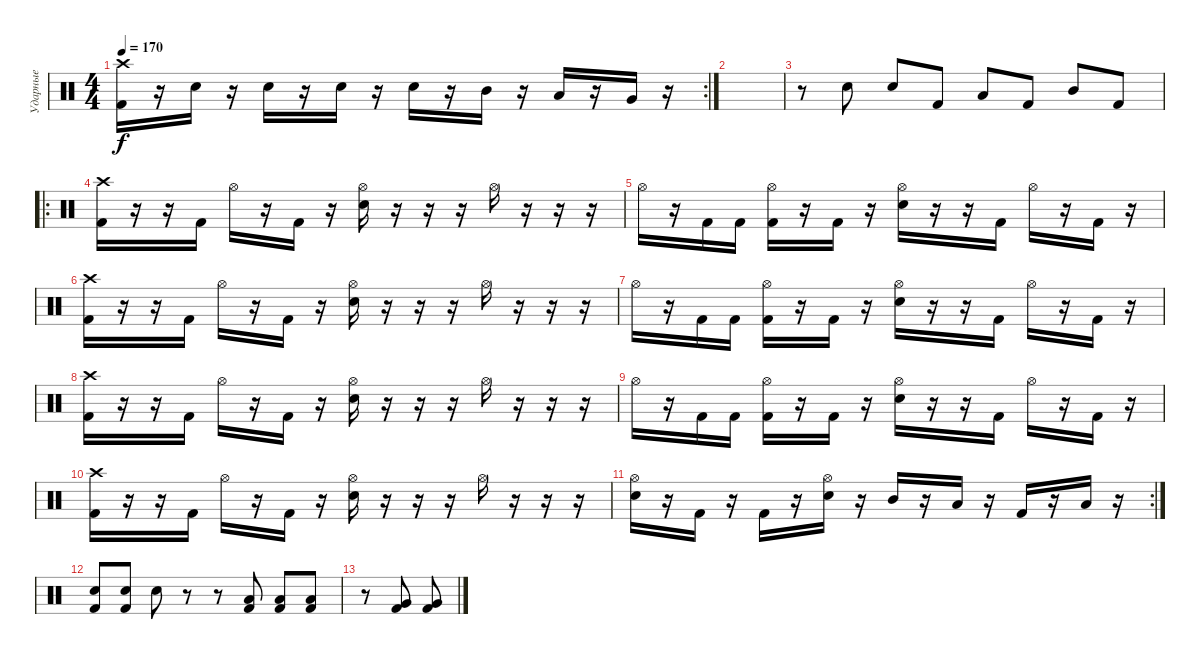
\track ("Ударные" "Ударные") {instrument percussion}
\staff {score}
\articulation defaults
\rc 2
\ts (4 4)
\tempo 170
\clef neutral
\ks c
("Crash high (hit)" "Kick (hit) 2").16{dy f} r.16 "Electric Snare (hit)".16 r.16 "Electric Snare (hit)".16 r.16 "Electric Snare (hit)".16 r.16 "Electric Snare (hit)".16 r.16 "Mid Tom (hit)".16 r.16 "Low Tom (hit)".16 r.16 "Very Low Tom (hit)".16 r.16 |
|
r.8 "Electric Snare (hit)".8 "Electric Snare (hit)".8 "Kick (hit) 2".8 "Low Tom (hit)".8 "Kick (hit) 2".8 "Mid Tom (hit)".8 "Kick (hit) 2".8 |
\ro
("Crash high (hit)" "Kick (hit) 2").16 r.16 r.16 "Kick (hit) 2".16 "Hi-Hat (open)".16 r.16 "Kick (hit) 2".16 r.16 ("Hi-Hat (open)" "Electric Snare (hit)").16 r.16 r.16 r.16 "Hi-Hat (open)".16 r.16 r.16 r.16 |
"Hi-Hat (open)".16 r.16 "Kick (hit) 2".16 "Kick (hit) 2".16 ("Hi-Hat (open)" "Kick (hit) 2").16 r.16 "Kick (hit) 2".16 r.16 ("Hi-Hat (open)" "Electric Snare (hit)").16 r.16 r.16 "Kick (hit) 2".16 "Hi-Hat (open)".16 r.16 "Kick (hit) 2".16 r.16 |
("Crash high (hit)" "Kick (hit) 2").16 r.16 r.16 "Kick (hit) 2".16 "Hi-Hat (open)".16 r.16 "Kick (hit) 2".16 r.16 ("Hi-Hat (open)" "Electric Snare (hit)").16 r.16 r.16 r.16 "Hi-Hat (open)".16 r.16 r.16 r.16 |
"Hi-Hat (open)".16 r.16 "Kick (hit) 2".16 "Kick (hit) 2".16 ("Hi-Hat (open)" "Kick (hit) 2").16 r.16 "Kick (hit) 2".16 r.16 ("Hi-Hat (open)" "Electric Snare (hit)").16 r.16 r.16 "Kick (hit) 2".16 "Hi-Hat (open)".16 r.16 "Kick (hit) 2".16 r.16 |
("Crash high (hit)" "Kick (hit) 2").16 r.16 r.16 "Kick (hit) 2".16 "Hi-Hat (open)".16 r.16 "Kick (hit) 2".16 r.16 ("Hi-Hat (open)" "Electric Snare (hit)").16 r.16 r.16 r.16 "Hi-Hat (open)".16 r.16 r.16 r.16 |
"Hi-Hat (open)".16 r.16 "Kick (hit) 2".16 "Kick (hit) 2".16 ("Hi-Hat (open)" "Kick (hit) 2").16 r.16 "Kick (hit) 2".16 r.16 ("Hi-Hat (open)" "Electric Snare (hit)").16 r.16 r.16 "Kick (hit) 2".16 "Hi-Hat (open)".16 r.16 "Kick (hit) 2".16 r.16 |
("Crash high (hit)" "Kick (hit) 2").16 r.16 r.16 "Kick (hit) 2".16 "Hi-Hat (open)".16 r.16 "Kick (hit) 2".16 r.16 ("Hi-Hat (open)" "Electric Snare (hit)").16 r.16 r.16 r.16 "Hi-Hat (open)".16 r.16 r.16 r.16 |
\rc 2
("Hi-Hat (open)" "Electric Snare (hit)").16 r.16 "Kick (hit) 2".16 r.16 "Kick (hit) 2".16 r.16 ("Hi-Hat (open)" "Electric Snare (hit)").16 r.16 "Mid Tom (hit)".16 r.16 "Low Tom (hit)".16 r.16 "Kick (hit) 2".16 r.16 "Low Tom (hit)".16 r.16 |
("Electric Snare (hit)" "Kick (hit) 2").8 ("Electric Snare (hit)" "Kick (hit) 2").8 "Electric Snare (hit)".8 r.8 r.8 ("Low Tom (hit)" "Kick (hit) 2").8 ("Low Tom (hit)" "Kick (hit) 2").8 ("Low Tom (hit)" "Kick (hit) 2").8 |
r.8 ("Very Low Tom (hit)" "Kick (hit) 2").8 ("Very Low Tom (hit)" "Kick (hit) 2").8
